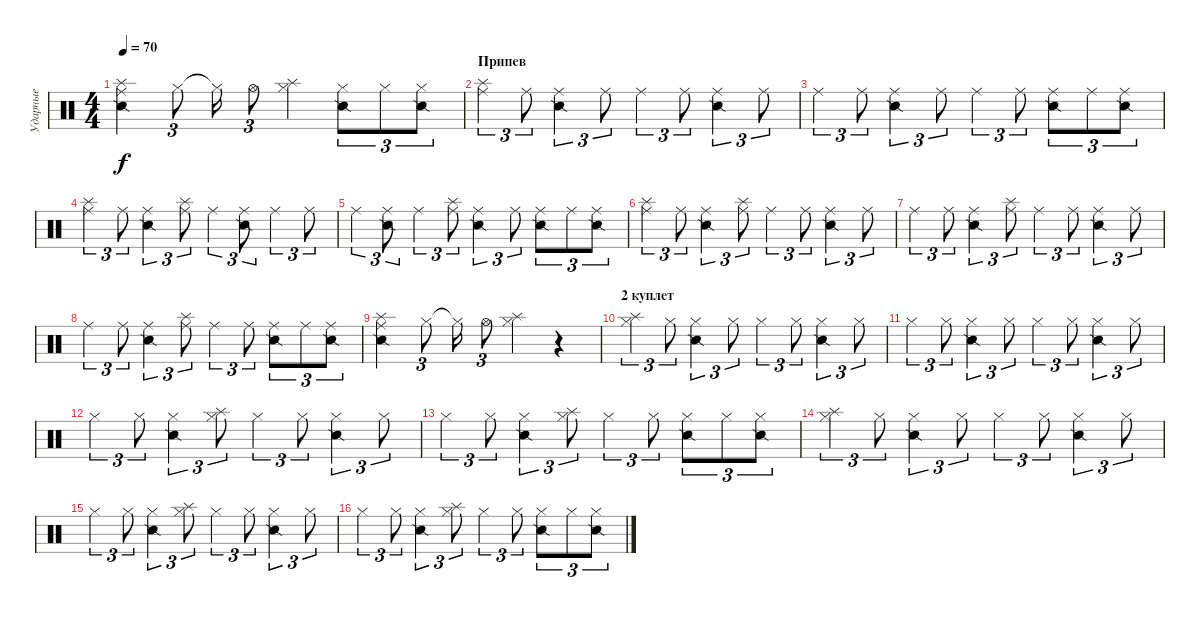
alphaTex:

\track ("Ударные" "Ударные") {instrument percussion}
\staff {score}
\articulation defaults
\ts (4 4)
\tempo 70
\clef neutral
\ks c
("Snare (side stick) 2" "Splash (hit)" "Ride (middle)").4{dy f} "Hi-Hat (closed)".8{tu (3 2)} "Hi-Hat (closed)"{t}.16 "Hi-Hat (open)".8{tu (3 2)} ("Hi-Hat (closed)" "Splash (hit)").4 ("Snare (side stick) 2" "Hi-Hat (closed)").8{tu (3 2)} "Hi-Hat (closed)".8{tu (3 2)} ("Snare (side stick) 2" "Hi-Hat (closed)").8{tu (3 2)} |
\section ("" "Припев")
("Splash (hit)" "Ride (middle)").4{tu (3 2)} "Ride (middle)".8{tu (3 2)} ("Snare (side stick) 2" "Ride (middle)").4{tu (3 2)} "Ride (middle)".8{tu (3 2)} "Ride (middle)".4{tu (3 2)} "Ride (middle)".8{tu (3 2)} ("Snare (side stick) 2" "Ride (middle)").4{tu (3 2)} "Ride (middle)".8{tu (3 2)} |
"Ride (middle)".4{tu (3 2)} "Ride (middle)".8{tu (3 2)} ("Snare (side stick) 2" "Ride (middle)").4{tu (3 2)} "Ride (middle)".8{tu (3 2)} "Ride (middle)".4{tu (3 2)} "Ride (middle)".8{tu (3 2)} ("Snare (side stick) 2" "Ride (middle)").8{tu (3 2)} "Ride (middle)".8{tu (3 2)} ("Snare (side stick) 2" "Ride (middle)").8{tu (3 2)} |
("Splash (hit)" "Ride (middle)").4{tu (3 2)} "Ride (middle)".8{tu (3 2)} ("Snare (side stick) 2" "Ride (middle)").4{tu (3 2)} ("Splash (hit)" "Ride (middle)").8{tu (3 2)} "Ride (middle)".4{tu (3 2)} ("Snare (side stick) 2" "Ride (middle)").8{tu (3 2)} "Ride (middle)".4{tu (3 2)} "Ride (middle)".8{tu (3 2)} |
"Ride (middle)".4{tu (3 2)} ("Snare (side stick) 2" "Ride (middle)").8{tu (3 2)} "Ride (middle)".4{tu (3 2)} ("Splash (hit)" "Ride (middle)").8{tu (3 2)} ("Snare (side stick) 2" "Ride (middle)").4{tu (3 2)} "Ride (middle)".8{tu (3 2)} ("Snare (side stick) 2" "Ride (middle)").8{tu (3 2)} "Ride (middle)".8{tu (3 2)} ("Snare (side stick) 2" "Ride (middle)").8{tu (3 2)} |
("Splash (hit)" "Ride (middle)").4{tu (3 2)} "Ride (middle)".8{tu (3 2)} ("Snare (side stick) 2" "Ride (middle)").4{tu (3 2)} ("Splash (hit)" "Ride (middle)").8{tu (3 2)} "Ride (middle)".4{tu (3 2)} "Ride (middle)".8{tu (3 2)} ("Snare (side stick) 2" "Ride (middle)").4{tu (3 2)} "Ride (middle)".8{tu (3 2)} |
"Ride (middle)".4{tu (3 2)} "Ride (middle)".8{tu (3 2)} ("Snare (side stick) 2" "Ride (middle)").4{tu (3 2)} ("Splash (hit)" "Ride (middle)").8{tu (3 2)} "Ride (middle)".4{tu (3 2)} "Ride (middle)".8{tu (3 2)} ("Snare (side stick) 2" "Ride (middle)").4{tu (3 2)} "Ride (middle)".8{tu (3 2)} |
"Ride (middle)".4{tu (3 2)} "Ride (middle)".8{tu (3 2)} ("Snare (side stick) 2" "Ride (middle)").4{tu (3 2)} ("Splash (hit)" "Ride (middle)").8{tu (3 2)} "Ride (middle)".4{tu (3 2)} "Ride (middle)".8{tu (3 2)} ("Snare (side stick) 2" "Ride (middle)").8{tu (3 2)} "Ride (middle)".8{tu (3 2)} ("Snare (side stick) 2" "Ride (middle)").8{tu (3 2)} |
("Snare (side stick) 2" "Splash (hit)" "Ride (middle)").4 "Hi-Hat (closed)".8{tu (3 2)} "Hi-Hat (closed)"{t}.16 "Hi-Hat (open)".8{tu (3 2)} ("Hi-Hat (closed)" "Splash (hit)").4 r.4 |
\section ("" "2 куплет")
("Splash (hit)" "Hi-Hat (closed)").4{tu (3 2)} "Hi-Hat (closed)".8{tu (3 2)} ("Snare (side stick) 2" "Hi-Hat (closed)").4{tu (3 2)} "Hi-Hat (closed)".8{tu (3 2)} "Hi-Hat (closed)".4{tu (3 2)} "Hi-Hat (closed)".8{tu (3 2)} ("Snare (side stick) 2" "Hi-Hat (closed)").4{tu (3 2)} "Hi-Hat (closed)".8{tu (3 2)} |
"Hi-Hat (closed)".4{tu (3 2)} "Hi-Hat (closed)".8{tu (3 2)} ("Snare (side stick) 2" "Hi-Hat (closed)").4{tu (3 2)} "Hi-Hat (closed)".8{tu (3 2)} "Hi-Hat (closed)".4{tu (3 2)} "Hi-Hat (closed)".8{tu (3 2)} ("Snare (side stick) 2" "Hi-Hat (closed)").4{tu (3 2)} "Hi-Hat (closed)".8{tu (3 2)} |
"Hi-Hat (closed)".4{tu (3 2)} "Hi-Hat (closed)".8{tu (3 2)} ("Snare (side stick) 2" "Hi-Hat (closed)").4{tu (3 2)} ("Splash (hit)" "Hi-Hat (closed)").8{tu (3 2)} "Hi-Hat (closed)".4{tu (3 2)} "Hi-Hat (closed)".8{tu (3 2)} ("Snare (side stick) 2" "Hi-Hat (closed)").4{tu (3 2)} "Hi-Hat (closed)".8{tu (3 2)} |
"Hi-Hat (closed)".4{tu (3 2)} "Hi-Hat (closed)".8{tu (3 2)} ("Snare (side stick) 2" "Hi-Hat (closed)").4{tu (3 2)} ("Splash (hit)" "Hi-Hat (closed)").8{tu (3 2)} "Hi-Hat (closed)".4{tu (3 2)} "Hi-Hat (closed)".8{tu (3 2)} ("Snare (side stick) 2" "Hi-Hat (closed)").8{tu (3 2)} "Hi-Hat (closed)".8{tu (3 2)} ("Snare (side stick) 2" "Hi-Hat (closed)").8{tu (3 2)} |
("Splash (hit)" "Hi-Hat (closed)").4{tu (3 2)} "Hi-Hat (closed)".8{tu (3 2)} ("Snare (side stick) 2" "Hi-Hat (closed)").4{tu (3 2)} "Hi-Hat (closed)".8{tu (3 2)} "Hi-Hat (closed)".4{tu (3 2)} "Hi-Hat (closed)".8{tu (3 2)} ("Snare (side stick) 2" "Hi-Hat (closed)").4{tu (3 2)} "Hi-Hat (closed)".8{tu (3 2)} |
"Hi-Hat (closed)".4{tu (3 2)} "Hi-Hat (closed)".8{tu (3 2)} ("Snare (side stick) 2" "Hi-Hat (closed)").4{tu (3 2)} ("Splash (hit)" "Hi-Hat (closed)").8{tu (3 2)} "Hi-Hat (closed)".4{tu (3 2)} "Hi-Hat (closed)".8{tu (3 2)} ("Snare (side stick) 2" "Hi-Hat (closed)").4{tu (3 2)} "Hi-Hat (closed)".8{tu (3 2)} |
"Hi-Hat (closed)".4{tu (3 2)} "Hi-Hat (closed)".8{tu (3 2)} ("Snare (side stick) 2" "Hi-Hat (closed)").4{tu (3 2)} ("Splash (hit)" "Hi-Hat (closed)").8{tu (3 2)} "Hi-Hat (closed)".4{tu (3 2)} "Hi-Hat (closed)".8{tu (3 2)} ("Snare (side stick) 2" "Hi-Hat (closed)").8{tu (3 2)} "Hi-Hat (closed)".8{tu (3 2)} ("Snare (side stick) 2" "Hi-Hat (closed)").8{tu (3 2)}
